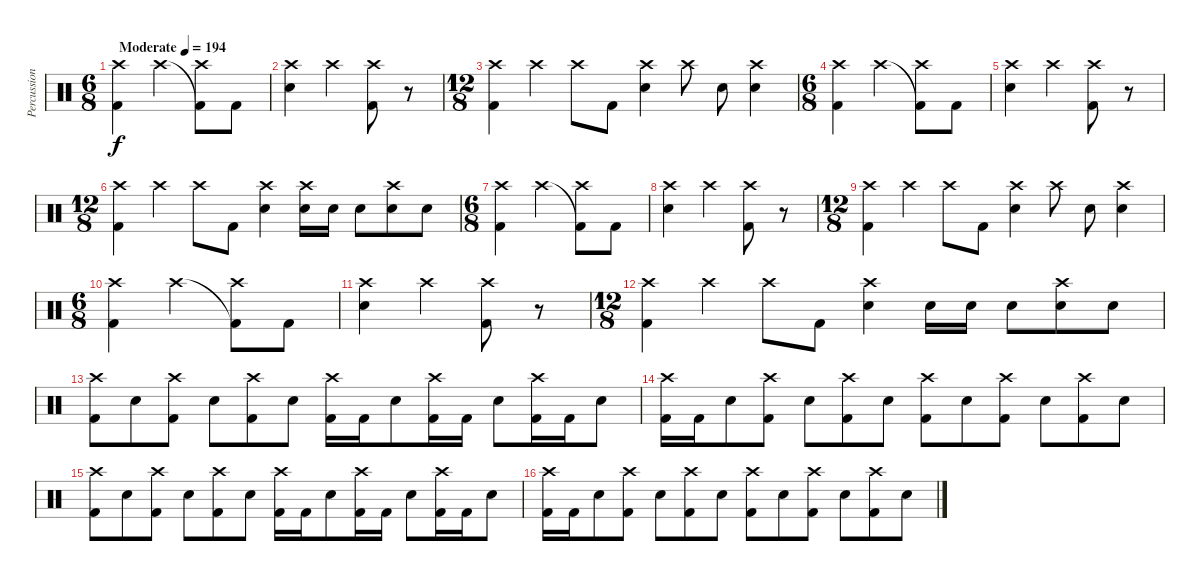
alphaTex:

\track ("Percussion" "Percussion") {instrument percussion}
\staff {score}
\articulation defaults
\ts (6 8)
\tempo (194 "Moderate")
\clef neutral
\ks c
("Kick (hit) 2" "Crash high (hit)").4{dy f} "Crash high (hit)".4 ("Kick (hit) 2"{t} "Crash high (hit)").8 "Kick (hit) 2".8 |
("Snare (hit) 2" "Crash high (hit)").4 "Crash high (hit)".4 ("Kick (hit) 2" "Crash high (hit)").8 r.8 |
\ts (12 8)
("Kick (hit) 2" "Crash high (hit)").4 "Crash high (hit)".4 "Crash high (hit)".8 "Kick (hit) 2".8 ("Snare (hit) 2" "Crash high (hit)").4 "Crash high (hit)".8 "Snare (hit) 2".8 ("Snare (hit) 2" "Crash high (hit)").4 |
\ts (6 8)
("Kick (hit) 2" "Crash high (hit)").4 "Crash high (hit)".4 ("Kick (hit) 2"{t} "Crash high (hit)").8 "Kick (hit) 2".8 |
("Snare (hit) 2" "Crash high (hit)").4 "Crash high (hit)".4 ("Kick (hit) 2" "Crash high (hit)").8 r.8 |
\ts (12 8)
("Kick (hit) 2" "Crash high (hit)").4 "Crash high (hit)".4 "Crash high (hit)".8 "Kick (hit) 2".8 ("Snare (hit) 2" "Crash high (hit)").4 ("Snare (hit) 2" "Crash high (hit)").16 "Snare (hit) 2".16 "Snare (hit) 2".8 ("Snare (hit) 2" "Crash high (hit)").8 "Snare (hit) 2".8 |
\ts (6 8)
("Kick (hit) 2" "Crash high (hit)").4 "Crash high (hit)".4 ("Kick (hit) 2"{t} "Crash high (hit)").8 "Kick (hit) 2".8 |
("Snare (hit) 2" "Crash high (hit)").4 "Crash high (hit)".4 ("Kick (hit) 2" "Crash high (hit)").8 r.8 |
\ts (12 8)
("Kick (hit) 2" "Crash high (hit)").4 "Crash high (hit)".4 "Crash high (hit)".8 "Kick (hit) 2".8 ("Snare (hit) 2" "Crash high (hit)").4 "Crash high (hit)".8 "Snare (hit) 2".8 ("Snare (hit) 2" "Crash high (hit)").4 |
\ts (6 8)
("Kick (hit) 2" "Crash high (hit)").4 "Crash high (hit)".4 ("Kick (hit) 2"{t} "Crash high (hit)").8 "Kick (hit) 2".8 |
("Snare (hit) 2" "Crash high (hit)").4 "Crash high (hit)".4 ("Kick (hit) 2" "Crash high (hit)").8 r.8 |
\ts (12 8)
("Kick (hit) 2" "Crash high (hit)").4 "Crash high (hit)".4 "Crash high (hit)".8 "Kick (hit) 2".8 ("Snare (hit) 2" "Crash high (hit)").4 "Snare (hit) 2".16 "Snare (hit) 2".16 "Snare (hit) 2".8 ("Snare (hit) 2" "Crash high (hit)").8 "Snare (hit) 2".8 |
("Kick (hit) 2" "Crash high (hit)").8 "Snare (hit) 2".8 ("Kick (hit) 2" "Crash high (hit)").8 "Snare (hit) 2".8 ("Kick (hit) 2" "Crash high (hit)").8 "Snare (hit) 2".8 ("Kick (hit) 2" "Crash high (hit)").16 "Kick (hit) 2".16 "Snare (hit) 2".8 ("Kick (hit) 2" "Crash high (hit)").16 "Kick (hit) 2".16 "Snare (hit) 2".8 ("Kick (hit) 2" "Crash high (hit)").16 "Kick (hit) 2".16 "Snare (hit) 2".8 |
("Kick (hit) 2" "Crash high (hit)").16 "Kick (hit) 2".16 "Snare (hit) 2".8 ("Kick (hit) 2" "Crash high (hit)").8 "Snare (hit) 2".8 ("Kick (hit) 2" "Crash high (hit)").8 "Snare (hit) 2".8 ("Kick (hit) 2" "Crash high (hit)").8 "Snare (hit) 2".8 ("Kick (hit) 2" "Crash high (hit)").8 "Snare (hit) 2".8 ("Kick (hit) 2" "Crash high (hit)").8 "Snare (hit) 2".8 |
("Kick (hit) 2" "Crash high (hit)").8 "Snare (hit) 2".8 ("Kick (hit) 2" "Crash high (hit)").8 "Snare (hit) 2".8 ("Kick (hit) 2" "Crash high (hit)").8 "Snare (hit) 2".8 ("Kick (hit) 2" "Crash high (hit)").16 "Kick (hit) 2".16 "Snare (hit) 2".8 ("Kick (hit) 2" "Crash high (hit)").16 "Kick (hit) 2".16 "Snare (hit) 2".8 ("Kick (hit) 2" "Crash high (hit)").16 "Kick (hit) 2".16 "Snare (hit) 2".8 |
("Kick (hit) 2" "Crash high (hit)").16 "Kick (hit) 2".16 "Snare (hit) 2".8 ("Kick (hit) 2" "Crash high (hit)").8 "Snare (hit) 2".8 ("Kick (hit) 2" "Crash high (hit)").8 "Snare (hit) 2".8 ("Kick (hit) 2" "Crash high (hit)").8 "Snare (hit) 2".8 ("Kick (hit) 2" "Crash high (hit)").8 "Snare (hit) 2".8 ("Kick (hit) 2" "Crash high (hit)").8 "Snare (hit) 2".8
